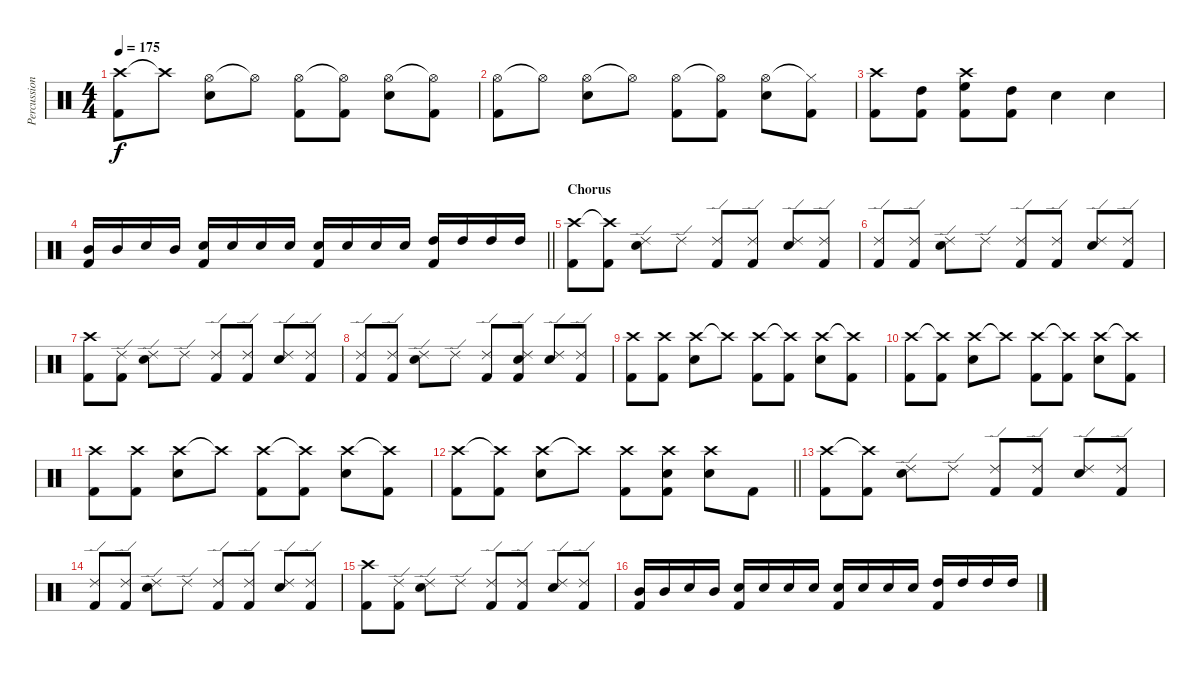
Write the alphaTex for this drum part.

\track ("Percussion" "Percussion") {instrument percussion}
\staff {score}
\articulation defaults
\ts (4 4)
\tempo 175
\clef neutral
\ks c
("Crash high (hit)" "Kick (hit) 2").8{dy f} "Crash high (hit)"{t}.8 ("Hi-Hat (open)" "Snare (hit) 2").8 "Hi-Hat (open)"{t}.8 ("Hi-Hat (open)" "Kick (hit) 2").8 ("Hi-Hat (open)"{t} "Kick (hit) 2").8 ("Hi-Hat (open)" "Snare (hit) 2").8 ("Hi-Hat (open)"{t} "Kick (hit) 2").8 |
("Hi-Hat (open)" "Kick (hit) 2").8 "Hi-Hat (open)"{t}.8 ("Hi-Hat (open)" "Snare (hit) 2").8 "Hi-Hat (open)"{t}.8 ("Hi-Hat (open)" "Kick (hit) 2").8 ("Hi-Hat (open)"{t} "Kick (hit) 2").8 ("Hi-Hat (open)" "Snare (hit) 2").8 ("Hi-Hat (closed)"{t} "Kick (hit) 2").8 |
("Crash high (hit)" "Kick (hit) 2").8 ("High Tom (hit)" "Kick (hit) 2").8 ("Crash high (hit)" "High Floor Tom (hit)" "Kick (hit) 2").8 ("High Tom (hit)" "Kick (hit) 2").8 "Snare (hit) 2".4 "Snare (hit) 2".4 |
\barLineRight lightlight
("Mid Tom (hit)" "Kick (hit) 2").16 "Mid Tom (hit)".16 "Snare (hit) 2".16 "Mid Tom (hit)".16 ("Snare (hit) 2" "Kick (hit) 2").16 "Snare (hit) 2".16 "Snare (hit) 2".16 "Snare (hit) 2".16 ("Snare (hit) 2" "Kick (hit) 2").16 "Snare (hit) 2".16 "Snare (hit) 2".16 "Snare (hit) 2".16 ("High Tom (hit)" "Kick (hit) 2").16 "High Tom (hit)".16 "High Tom (hit)".16 "High Tom (hit)".16 |
\section ("" "Chorus")
("Crash high (hit)" "Kick (hit) 2").8 ("Crash high (hit)"{t} "Kick (hit) 2").8 ("Ride (edge) 2" "Snare (hit) 2").8 "Ride (edge) 2".8 ("Ride (edge) 2" "Kick (hit) 2").8 ("Ride (edge) 2" "Kick (hit) 2").8 ("Ride (edge) 2" "Snare (hit) 2").8 ("Ride (edge) 2" "Kick (hit) 2").8 |
("Ride (edge) 2" "Kick (hit) 2").8 ("Ride (edge) 2" "Kick (hit) 2").8 ("Ride (edge) 2" "Snare (hit) 2").8 "Ride (edge) 2".8 ("Ride (edge) 2" "Kick (hit) 2").8 ("Ride (edge) 2" "Kick (hit) 2").8 ("Ride (edge) 2" "Snare (hit) 2").8 ("Ride (edge) 2" "Kick (hit) 2").8 |
("Crash high (hit)" "Kick (hit) 2").8 ("Ride (edge) 2" "Kick (hit) 2").8 ("Ride (edge) 2" "Snare (hit) 2").8 "Ride (edge) 2".8 ("Ride (edge) 2" "Kick (hit) 2").8 ("Ride (edge) 2" "Kick (hit) 2").8 ("Ride (edge) 2" "Snare (hit) 2").8 ("Ride (edge) 2" "Kick (hit) 2").8 |
("Ride (edge) 2" "Kick (hit) 2").8 ("Ride (edge) 2" "Kick (hit) 2").8 ("Ride (edge) 2" "Snare (hit) 2").8 "Ride (edge) 2".8 ("Ride (edge) 2" "Kick (hit) 2").8 ("Ride (edge) 2" "Snare (hit) 2" "Kick (hit) 2").8 ("Ride (edge) 2" "Snare (hit) 2").8 ("Ride (edge) 2" "Kick (hit) 2").8 |
("Crash high (hit)" "Kick (hit) 2").8 ("Crash high (hit)" "Kick (hit) 2").8 ("Crash high (hit)" "Snare (hit) 2").8 "Crash high (hit)"{t}.8 ("Crash high (hit)" "Kick (hit) 2").8 ("Crash high (hit)"{t} "Kick (hit) 2").8 ("Crash high (hit)" "Snare (hit) 2").8 ("Crash high (hit)"{t} "Kick (hit) 2").8 |
("Crash high (hit)" "Kick (hit) 2").8 ("Crash high (hit)"{t} "Kick (hit) 2").8 ("Crash high (hit)" "Snare (hit) 2").8 "Crash high (hit)"{t}.8 ("Crash high (hit)" "Kick (hit) 2").8 ("Crash high (hit)"{t} "Kick (hit) 2").8 ("Crash high (hit)" "Snare (hit) 2").8 ("Crash high (hit)"{t} "Kick (hit) 2").8 |
("Crash high (hit)" "Kick (hit) 2").8 ("Crash high (hit)" "Kick (hit) 2").8 ("Crash high (hit)" "Snare (hit) 2").8 "Crash high (hit)"{t}.8 ("Crash high (hit)" "Kick (hit) 2").8 ("Crash high (hit)"{t} "Kick (hit) 2").8 ("Crash high (hit)" "Snare (hit) 2").8 ("Crash high (hit)"{t} "Kick (hit) 2").8 |
\barLineRight lightlight
("Crash high (hit)" "Kick (hit) 2").8 ("Crash high (hit)"{t} "Kick (hit) 2").8 ("Crash high (hit)" "Snare (hit) 2").8 "Crash high (hit)"{t}.8 ("Crash high (hit)" "Kick (hit) 2").8 ("Crash high (hit)" "Snare (hit) 2" "Kick (hit) 2").8 ("Crash high (hit)" "Snare (hit) 2").8 "Kick (hit) 2".8 |
("Crash high (hit)" "Kick (hit) 2").8 ("Crash high (hit)"{t} "Kick (hit) 2").8 ("Ride (edge) 2" "Snare (hit) 2").8 "Ride (edge) 2".8 ("Ride (edge) 2" "Kick (hit) 2").8 ("Ride (edge) 2" "Kick (hit) 2").8 ("Ride (edge) 2" "Snare (hit) 2").8 ("Ride (edge) 2" "Kick (hit) 2").8 |
("Ride (edge) 2" "Kick (hit) 2").8 ("Ride (edge) 2" "Kick (hit) 2").8 ("Ride (edge) 2" "Snare (hit) 2").8 "Ride (edge) 2".8 ("Ride (edge) 2" "Kick (hit) 2").8 ("Ride (edge) 2" "Kick (hit) 2").8 ("Ride (edge) 2" "Snare (hit) 2").8 ("Ride (edge) 2" "Kick (hit) 2").8 |
("Crash high (hit)" "Kick (hit) 2").8 ("Ride (edge) 2" "Kick (hit) 2").8 ("Ride (edge) 2" "Snare (hit) 2").8 "Ride (edge) 2".8 ("Ride (edge) 2" "Kick (hit) 2").8 ("Ride (edge) 2" "Kick (hit) 2").8 ("Ride (edge) 2" "Snare (hit) 2").8 ("Ride (edge) 2" "Kick (hit) 2").8 |
("Mid Tom (hit)" "Kick (hit) 2").16 "Mid Tom (hit)".16 "Snare (hit) 2".16 "Mid Tom (hit)".16 ("Snare (hit) 2" "Kick (hit) 2").16 "Snare (hit) 2".16 "Snare (hit) 2".16 "Snare (hit) 2".16 ("Snare (hit) 2" "Kick (hit) 2").16 "Snare (hit) 2".16 "Snare (hit) 2".16 "Snare (hit) 2".16 ("High Tom (hit)" "Kick (hit) 2").16 "High Tom (hit)".16 "High Tom (hit)".16 "High Tom (hit)".16
